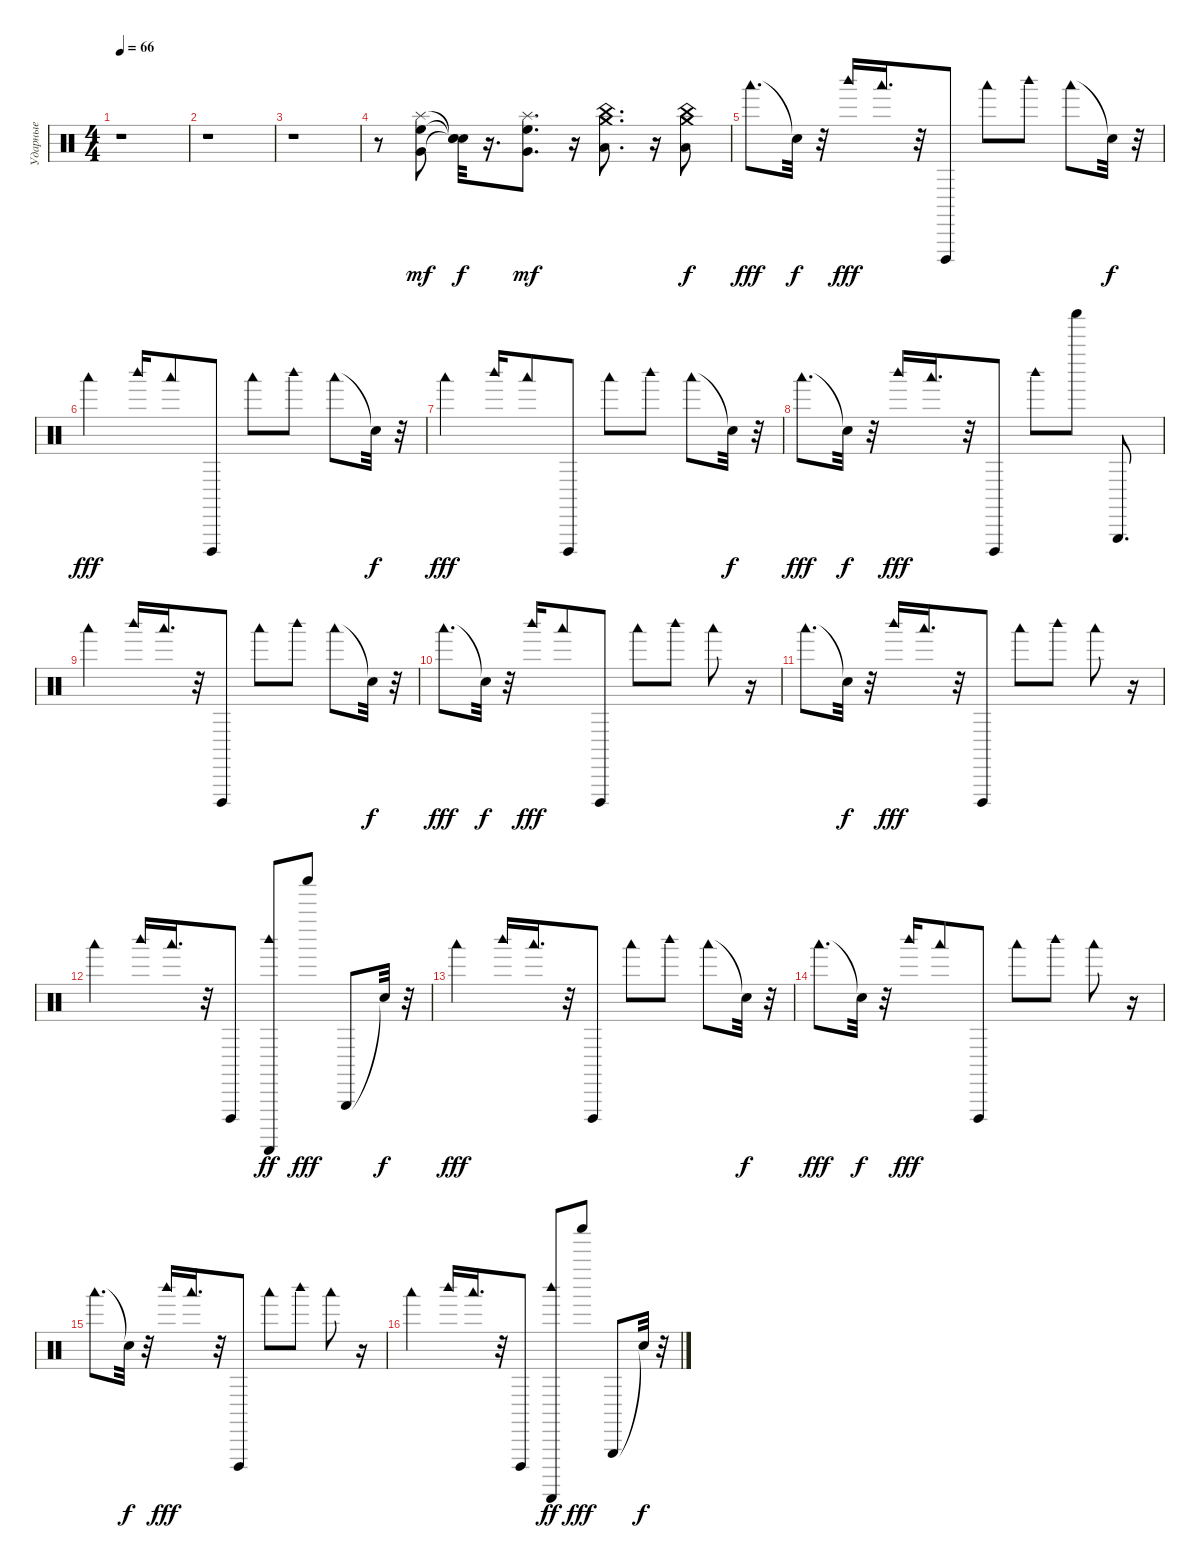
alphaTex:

\track ("Ударные" "Ударные") {instrument percussion}
\staff {score}
\articulation defaults
\ts (4 4)
\tempo 66
\clef neutral
\ks c
r.1{dy ff} |
r.1 |
r.1 |
r.8 ("High Floor Tom (hit)" "Splash (hit)" "Very Low Tom (hit)").8{dy mf} ("Snare (hit)"{t} "Snare (hit)"{t} "Snare (hit)"{t}).32{dy f} r.16{d} ("Splash (hit)" "High Floor Tom (hit)" "Very Low Tom (hit)").8{d dy mf} r.16 ("China (hit)" "Crash medium (hit)" "Low Tom (hit)").8{d} r.16 ("Crash medium (hit)" "Low Tom (hit)" "China (hit)").8{dy f} |
"Woodblock low (hit)".8{d dy fff} "Snare (hit)"{t}.32{dy f} r.32 "Woodblock high (hit)".16{dy fff} "Woodblock low (hit)".16{d} r.32 "Cuica (open)".8 "Woodblock low (hit)".8 "Woodblock high (hit)".8 "Woodblock low (hit)".8 "Snare (hit)"{t}.32{dy f} r.32 |
"Woodblock low (hit)".4{dy fff} "Woodblock high (hit)".16 "Woodblock low (hit)".8 "Cuica (open)".8 "Woodblock low (hit)".8 "Woodblock high (hit)".8 "Woodblock low (hit)".8 "Snare (hit)"{t}.32{dy f} r.32 |
"Woodblock low (hit)".4{dy fff} "Woodblock high (hit)".16 "Woodblock low (hit)".8 "Cuica (open)".8 "Woodblock low (hit)".8 "Woodblock high (hit)".8 "Woodblock low (hit)".8 "Snare (hit)"{t}.32{dy f} r.32 |
"Woodblock low (hit)".8{d dy fff} "Snare (hit)"{t}.32{dy f} r.32 "Woodblock high (hit)".16{dy fff} "Woodblock low (hit)".16{d} r.32 "Cuica (open)".8 "Woodblock high (hit)".8 "Shaker (hit)".8 "Triangle (hit)".8{d} |
"Woodblock low (hit)".4 "Woodblock high (hit)".16 "Woodblock low (hit)".16{d} r.32 "Cuica (open)".8 "Woodblock low (hit)".8 "Woodblock high (hit)".8 "Woodblock low (hit)".8 "Snare (hit)"{t}.32{dy f} r.32 |
"Woodblock low (hit)".8{d dy fff} "Snare (hit)"{t}.32{dy f} r.32 "Woodblock high (hit)".16{dy fff} "Woodblock low (hit)".8 "Cuica (open)".8 "Woodblock low (hit)".8 "Woodblock high (hit)".8 "Woodblock low (hit)".8 r.16 |
"Woodblock low (hit)".8{d} "Snare (hit)"{t}.32{dy f} r.32 "Woodblock high (hit)".16{dy fff} "Woodblock low (hit)".16{d} r.32 "Cuica (open)".8 "Woodblock low (hit)".8 "Woodblock high (hit)".8 "Woodblock low (hit)".8 r.16 |
"Woodblock low (hit)".4 "Woodblock high (hit)".16 "Woodblock low (hit)".16{d} r.32 "Cuica (open)".8 ("Woodblock high (hit)" "Guiro (scrap-return)").8{dy ff} "Shaker (hit)".8{dy fff} "Triangle (hit)".8 "Snare (hit)"{t}.32{dy f} r.32 |
"Woodblock low (hit)".4{dy fff} "Woodblock high (hit)".16 "Woodblock low (hit)".16{d} r.32 "Cuica (open)".8 "Woodblock low (hit)".8 "Woodblock high (hit)".8 "Woodblock low (hit)".8 "Snare (hit)"{t}.32{dy f} r.32 |
"Woodblock low (hit)".8{d dy fff} "Snare (hit)"{t}.32{dy f} r.32 "Woodblock high (hit)".16{dy fff} "Woodblock low (hit)".8 "Cuica (open)".8 "Woodblock low (hit)".8 "Woodblock high (hit)".8 "Woodblock low (hit)".8 r.16 |
"Woodblock low (hit)".8{d} "Snare (hit)"{t}.32{dy f} r.32 "Woodblock high (hit)".16{dy fff} "Woodblock low (hit)".16{d} r.32 "Cuica (open)".8 "Woodblock low (hit)".8 "Woodblock high (hit)".8 "Woodblock low (hit)".8 r.16 |
"Woodblock low (hit)".4 "Woodblock high (hit)".16 "Woodblock low (hit)".16{d} r.32 "Cuica (open)".8 ("Woodblock high (hit)" "Guiro (scrap-return)").8{dy ff} "Shaker (hit)".8{dy fff} "Triangle (hit)".8 "Snare (hit)"{t}.32{dy f} r.32
